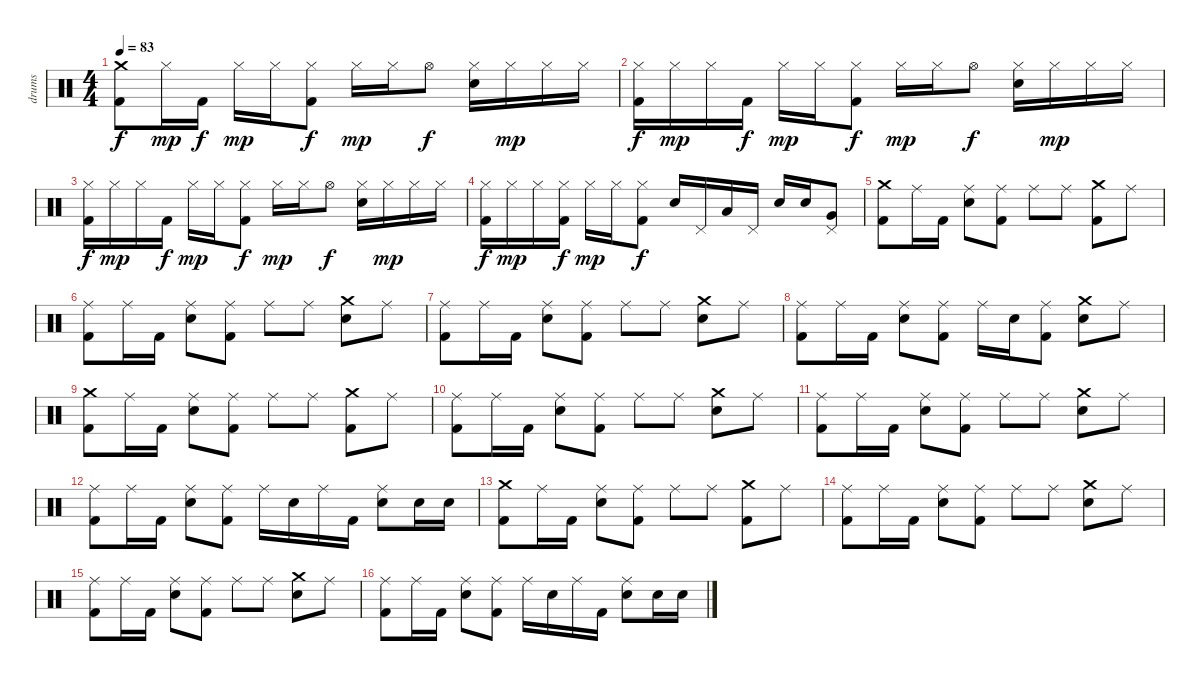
\track ("drums" "drums") {instrument percussion}
\staff {score}
\articulation defaults
\ts (4 4)
\tempo 83
\clef neutral
\ks c
("Crash medium (hit)" "Kick (hit) 2").8{dy f} "Hi-Hat (closed)".16{dy mp} "Kick (hit) 2".16{dy f} "Hi-Hat (closed)".16{dy mp} "Hi-Hat (closed)".16 ("Hi-Hat (closed)" "Kick (hit) 2").8{dy f} "Hi-Hat (closed)".16{dy mp} "Hi-Hat (closed)".16 "Hi-Hat (open)".8{dy f} ("Hi-Hat (closed)" "Electric Snare (hit)").16 "Hi-Hat (closed)".16{dy mp} "Hi-Hat (closed)".16 "Hi-Hat (closed)".16 |
("Kick (hit) 2" "Hi-Hat (closed)").16{dy f} "Hi-Hat (closed)".16{dy mp} "Hi-Hat (closed)".16 "Kick (hit) 2".16{dy f} "Hi-Hat (closed)".16{dy mp} "Hi-Hat (closed)".16 ("Hi-Hat (closed)" "Kick (hit) 2").8{dy f} "Hi-Hat (closed)".16{dy mp} "Hi-Hat (closed)".16 "Hi-Hat (open)".8{dy f} ("Hi-Hat (closed)" "Electric Snare (hit)").16 "Hi-Hat (closed)".16{dy mp} "Hi-Hat (closed)".16 "Hi-Hat (closed)".16 |
("Kick (hit) 2" "Hi-Hat (closed)").16{dy f} "Hi-Hat (closed)".16{dy mp} "Hi-Hat (closed)".16 "Kick (hit) 2".16{dy f} "Hi-Hat (closed)".16{dy mp} "Hi-Hat (closed)".16 ("Hi-Hat (closed)" "Kick (hit) 2").8{dy f} "Hi-Hat (closed)".16{dy mp} "Hi-Hat (closed)".16 "Hi-Hat (open)".8{dy f} ("Hi-Hat (closed)" "Electric Snare (hit)").16 "Hi-Hat (closed)".16{dy mp} "Hi-Hat (closed)".16 "Hi-Hat (closed)".16 |
("Hi-Hat (closed)" "Kick (hit) 2").16{dy f} "Hi-Hat (closed)".16{dy mp} "Hi-Hat (closed)".16 ("Hi-Hat (closed)" "Kick (hit) 2").16{dy f} "Hi-Hat (closed)".16{dy mp} "Hi-Hat (closed)".16 ("Hi-Hat (closed)" "Kick (hit) 2").8{dy f} "Electric Snare (hit)".16 "Pedal Hi-Hat (hit)".16 "Low Tom (hit)".16 "Pedal Hi-Hat (hit)".16 "Electric Snare (hit)".16 "Electric Snare (hit)".16 ("Very Low Tom (hit)" "Pedal Hi-Hat (hit)").8 |
("Crash medium (hit)" "Kick (hit) 2").8 "Ride (middle)".16 "Kick (hit) 2".16 ("Ride (middle)" "Electric Snare (hit)").8 ("Kick (hit) 2" "Ride (middle)").8 "Ride (middle)".8 "Ride (middle)".8 ("Crash medium (hit)" "Kick (hit) 2").8 "Ride (middle)".8 |
("Ride (middle)" "Kick (hit) 2").8 "Ride (middle)".16 "Kick (hit) 2".16 ("Ride (middle)" "Electric Snare (hit)").8 ("Ride (middle)" "Kick (hit) 2").8 "Ride (middle)".8 "Ride (middle)".8 ("Crash medium (hit)" "Electric Snare (hit)").8 "Ride (middle)".8 |
("Ride (middle)" "Kick (hit) 2").8 "Ride (middle)".16 "Kick (hit) 2".16 ("Ride (middle)" "Electric Snare (hit)").8 ("Ride (middle)" "Kick (hit) 2").8 "Ride (middle)".8 "Ride (middle)".8 ("Crash medium (hit)" "Electric Snare (hit)").8 "Ride (middle)".8 |
("Ride (middle)" "Kick (hit) 2").8 "Ride (middle)".16 "Kick (hit) 2".16 ("Ride (middle)" "Electric Snare (hit)").8 ("Ride (middle)" "Kick (hit) 2").8 "Ride (middle)".16 "Electric Snare (hit)".16 ("Ride (middle)" "Kick (hit) 2").8 ("Crash medium (hit)" "Electric Snare (hit)").8 "Ride (middle)".8 |
("Crash medium (hit)" "Kick (hit) 2").8 "Ride (middle)".16 "Kick (hit) 2".16 ("Ride (middle)" "Electric Snare (hit)").8 ("Kick (hit) 2" "Ride (middle)").8 "Ride (middle)".8 "Ride (middle)".8 ("Crash medium (hit)" "Kick (hit) 2").8 "Ride (middle)".8 |
("Ride (middle)" "Kick (hit) 2").8 "Ride (middle)".16 "Kick (hit) 2".16 ("Ride (middle)" "Electric Snare (hit)").8 ("Ride (middle)" "Kick (hit) 2").8 "Ride (middle)".8 "Ride (middle)".8 ("Crash medium (hit)" "Electric Snare (hit)").8 "Ride (middle)".8 |
("Ride (middle)" "Kick (hit) 2").8 "Ride (middle)".16 "Kick (hit) 2".16 ("Ride (middle)" "Electric Snare (hit)").8 ("Ride (middle)" "Kick (hit) 2").8 "Ride (middle)".8 "Ride (middle)".8 ("Crash medium (hit)" "Electric Snare (hit)").8 "Ride (middle)".8 |
("Ride (middle)" "Kick (hit) 2").8 "Ride (middle)".16 "Kick (hit) 2".16 ("Ride (middle)" "Electric Snare (hit)").8 ("Ride (middle)" "Kick (hit) 2").8 "Ride (middle)".16 "Electric Snare (hit)".16 "Ride (middle)".16 "Kick (hit) 2".16 ("Ride (middle)" "Electric Snare (hit)").8 "Electric Snare (hit)".16 "Electric Snare (hit)".16 |
("Crash medium (hit)" "Kick (hit) 2").8 "Ride (middle)".16 "Kick (hit) 2".16 ("Ride (middle)" "Electric Snare (hit)").8 ("Kick (hit) 2" "Ride (middle)").8 "Ride (middle)".8 "Ride (middle)".8 ("Crash medium (hit)" "Kick (hit) 2").8 "Ride (middle)".8 |
("Ride (middle)" "Kick (hit) 2").8 "Ride (middle)".16 "Kick (hit) 2".16 ("Ride (middle)" "Electric Snare (hit)").8 ("Ride (middle)" "Kick (hit) 2").8 "Ride (middle)".8 "Ride (middle)".8 ("Crash medium (hit)" "Electric Snare (hit)").8 "Ride (middle)".8 |
("Ride (middle)" "Kick (hit) 2").8 "Ride (middle)".16 "Kick (hit) 2".16 ("Ride (middle)" "Electric Snare (hit)").8 ("Ride (middle)" "Kick (hit) 2").8 "Ride (middle)".8 "Ride (middle)".8 ("Crash medium (hit)" "Electric Snare (hit)").8 "Ride (middle)".8 |
("Ride (middle)" "Kick (hit) 2").8 "Ride (middle)".16 "Kick (hit) 2".16 ("Ride (middle)" "Electric Snare (hit)").8 ("Ride (middle)" "Kick (hit) 2").8 "Ride (middle)".16 "Electric Snare (hit)".16 "Ride (middle)".16 "Kick (hit) 2".16 ("Ride (middle)" "Electric Snare (hit)").8 "Electric Snare (hit)".16 "Electric Snare (hit)".16
